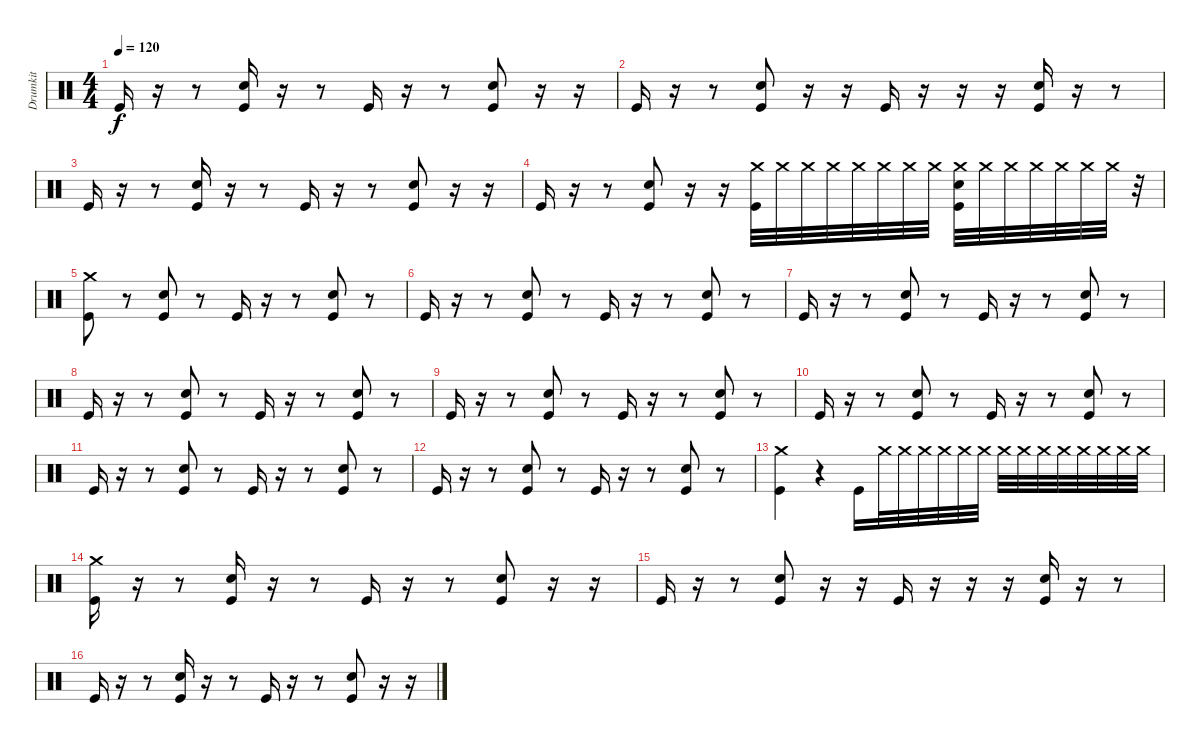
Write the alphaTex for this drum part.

\track ("Drumkit" "Drumkit") {instrument percussion}
\staff {score}
\articulation defaults
\ts (4 4)
\tempo 120
\clef neutral
\ks c "Kick (hit)".16{dy f}
r.16 r.8 ("Kick (hit)" "Snare (hit) 2").16 r.16 r.8 "Kick (hit)".16 r.16 r.8 ("Kick (hit)" "Snare (hit) 2").8 r.16 r.16 |
"Kick (hit)".16 r.16 r.8 ("Kick (hit)" "Snare (hit) 2").8 r.16 r.16 "Kick (hit)".16 r.16 r.16 r.16 ("Kick (hit)" "Snare (hit) 2").16 r.16 r.8 |
"Kick (hit)".16 r.16 r.8 ("Kick (hit)" "Snare (hit) 2").16 r.16 r.8 "Kick (hit)".16 r.16 r.8 ("Kick (hit)" "Snare (hit) 2").8 r.16 r.16 |
"Kick (hit)".16 r.16 r.8 ("Kick (hit)" "Snare (hit) 2").8 r.16 r.16 ("Kick (hit)" "Crash medium (hit)").32 "Crash medium (hit)".32 "Crash medium (hit)".32 "Crash medium (hit)".32 "Crash medium (hit)".32 "Crash medium (hit)".32 "Crash medium (hit)".32 "Crash medium (hit)".32 ("Crash medium (hit)" "Kick (hit)" "Snare (hit) 2").32 "Crash medium (hit)".32 "Crash medium (hit)".32 "Crash medium (hit)".32 "Crash medium (hit)".32 "Crash medium (hit)".32 "Crash medium (hit)".32 r.32 |
("Kick (hit)" "Crash medium (hit)").8 r.8 ("Kick (hit)" "Snare (hit) 2").8 r.8 "Kick (hit)".16 r.16 r.8 ("Kick (hit)" "Snare (hit) 2").8 r.8 |
"Kick (hit)".16 r.16 r.8 ("Kick (hit)" "Snare (hit) 2").8 r.8 "Kick (hit)".16 r.16 r.8 ("Kick (hit)" "Snare (hit) 2").8 r.8 |
"Kick (hit)".16 r.16 r.8 ("Kick (hit)" "Snare (hit) 2").8 r.8 "Kick (hit)".16 r.16 r.8 ("Kick (hit)" "Snare (hit) 2").8 r.8 |
"Kick (hit)".16 r.16 r.8 ("Kick (hit)" "Snare (hit) 2").8 r.8 "Kick (hit)".16 r.16 r.8 ("Kick (hit)" "Snare (hit) 2").8 r.8 |
"Kick (hit)".16 r.16 r.8 ("Kick (hit)" "Snare (hit) 2").8 r.8 "Kick (hit)".16 r.16 r.8 ("Kick (hit)" "Snare (hit) 2").8 r.8 |
"Kick (hit)".16 r.16 r.8 ("Kick (hit)" "Snare (hit) 2").8 r.8 "Kick (hit)".16 r.16 r.8 ("Kick (hit)" "Snare (hit) 2").8 r.8 |
"Kick (hit)".16 r.16 r.8 ("Kick (hit)" "Snare (hit) 2").8 r.8 "Kick (hit)".16 r.16 r.8 ("Kick (hit)" "Snare (hit) 2").8 r.8 |
"Kick (hit)".16 r.16 r.8 ("Kick (hit)" "Snare (hit) 2").8 r.8 "Kick (hit)".16 r.16 r.8 ("Kick (hit)" "Snare (hit) 2").8 r.8 |
("Crash medium (hit)" "Kick (hit)").4 r.4 "Kick (hit)".16 "Crash medium (hit)".32 "Crash medium (hit)".32 "Crash medium (hit)".32 "Crash medium (hit)".32 "Crash medium (hit)".32 "Crash medium (hit)".32 "Crash medium (hit)".32 "Crash medium (hit)".32 "Crash medium (hit)".32 "Crash medium (hit)".32 "Crash medium (hit)".32 "Crash medium (hit)".32 "Crash medium (hit)".32 "Crash medium (hit)".32 |
("Crash medium (hit)" "Kick (hit)").16 r.16 r.8 ("Kick (hit)" "Snare (hit) 2").16 r.16 r.8 "Kick (hit)".16 r.16 r.8 ("Kick (hit)" "Snare (hit) 2").8 r.16 r.16 |
"Kick (hit)".16 r.16 r.8 ("Kick (hit)" "Snare (hit) 2").8 r.16 r.16 "Kick (hit)".16 r.16 r.16 r.16 ("Kick (hit)" "Snare (hit) 2").16 r.16 r.8 |
"Kick (hit)".16 r.16 r.8 ("Kick (hit)" "Snare (hit) 2").16 r.16 r.8 "Kick (hit)".16 r.16 r.8 ("Kick (hit)" "Snare (hit) 2").8 r.16 r.16
